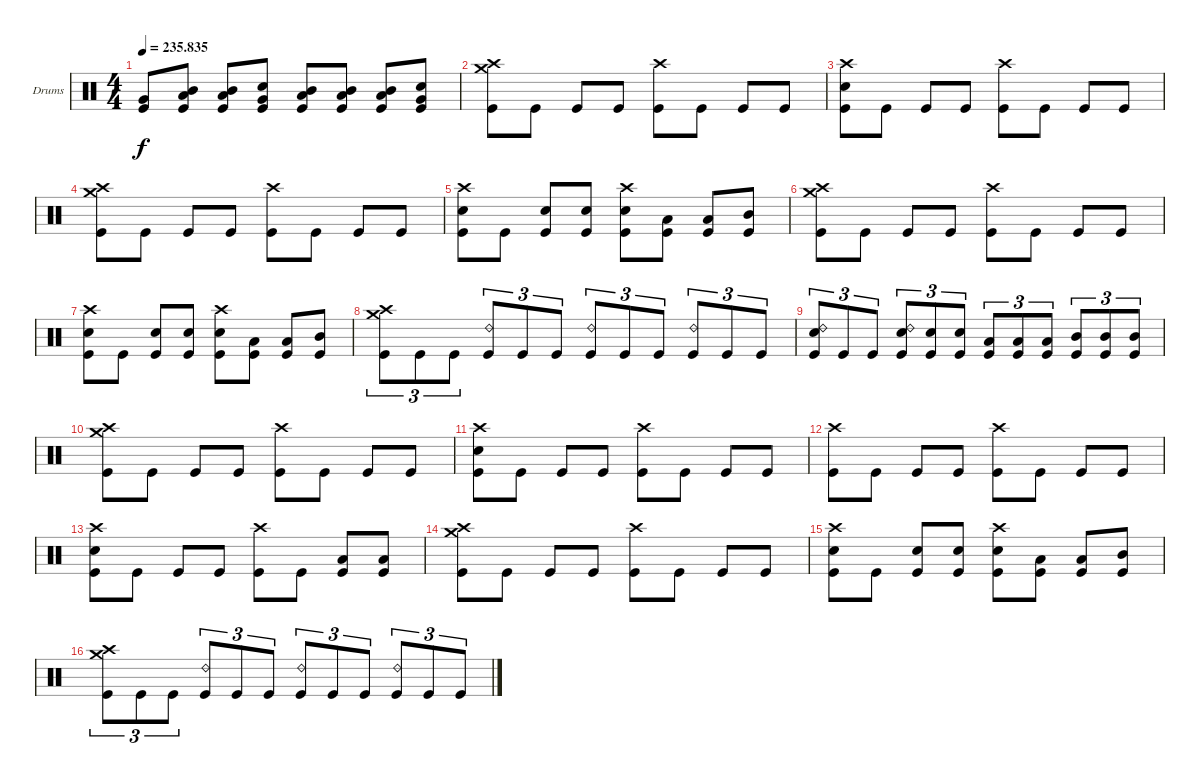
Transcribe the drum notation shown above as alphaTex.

\bracketExtendMode groupsimilarinstruments
\firstSystemTrackNameOrientation horizontal
\otherSystemsTrackNameOrientation horizontal
\track ("Drumkit" "Drums") {instrument percussion}
\staff {score}
\articulation defaults
\ts (4 4)
\tempo
235.835
\accidentals auto
\clef neutral
\ottava regular
\simile none
\ks c
("Very Low Tom (hit)" "Kick (hit)").8{dy f} ("Mid Tom (hit)" "Low Tom (hit)" "Kick (hit)").8 ("Mid Tom (hit)" "Low Tom (hit)" "Kick (hit)").8 ("Very Low Tom (hit)" "Snare (hit) 2" "Kick (hit)").8 ("Mid Tom (hit)" "Low Tom (hit)" "Kick (hit)").8 ("Mid Tom (hit)" "Low Tom (hit)" "Kick (hit)").8 ("Mid Tom (hit)" "Low Tom (hit)" "Kick (hit)").8 ("Very Low Tom (hit)" "Snare (hit) 2" "Kick (hit)").8 |
("Crash high (hit)" "Crash medium (hit)" "Kick (hit)").8 "Kick (hit)".8 "Kick (hit)".8 "Kick (hit)".8 ("Crash high (hit)" "Kick (hit)").8 "Kick (hit)".8 "Kick (hit)".8 "Kick (hit)".8 |
("Crash high (hit)" "Snare (hit) 2" "Kick (hit)").8 "Kick (hit)".8 "Kick (hit)".8 "Kick (hit)".8 ("Crash high (hit)" "Kick (hit)").8 "Kick (hit)".8 "Kick (hit)".8 "Kick (hit)".8 |
("Crash high (hit)" "Crash medium (hit)" "Kick (hit)").8 "Kick (hit)".8 "Kick (hit)".8 "Kick (hit)".8 ("Crash high (hit)" "Kick (hit)").8 "Kick (hit)".8 "Kick (hit)".8 "Kick (hit)".8 |
("Crash high (hit)" "Snare (hit) 2" "Kick (hit)").8 "Kick (hit)".8 ("Snare (hit) 2" "Kick (hit)").8 ("Snare (hit) 2" "Kick (hit)").8 ("Crash high (hit)" "Snare (hit) 2" "Kick (hit)").8 ("Low Tom (hit)" "Kick (hit)").8 ("Low Tom (hit)" "Kick (hit)").8 ("Mid Tom (hit)" "Kick (hit)").8 |
("Crash high (hit)" "Crash medium (hit)" "Kick (hit)").8 "Kick (hit)".8 "Kick (hit)".8 "Kick (hit)".8 ("Crash high (hit)" "Kick (hit)").8 "Kick (hit)".8 "Kick (hit)".8 "Kick (hit)".8 |
("Crash high (hit)" "Snare (hit) 2" "Kick (hit)").8 "Kick (hit)".8 ("Snare (hit) 2" "Kick (hit)").8 ("Snare (hit) 2" "Kick (hit)").8 ("Crash high (hit)" "Snare (hit) 2" "Kick (hit)").8 ("Low Tom (hit)" "Kick (hit)").8 ("Low Tom (hit)" "Kick (hit)").8 ("Mid Tom (hit)" "Kick (hit)").8 |
("Crash high (hit)" "Crash medium (hit)" "Kick (hit)").8{tu (3 2)} "Kick (hit)".8{tu (3 2)} "Kick (hit)".8{tu (3 2)} ("Ride (bell) 2" "Kick (hit)").8{tu (3 2)} "Kick (hit)".8{tu (3 2)} "Kick (hit)".8{tu (3 2)} ("Ride (bell) 2" "Kick (hit)").8{tu (3 2)} "Kick (hit)".8{tu (3 2)} "Kick (hit)".8{tu (3 2)} ("Ride (bell) 2" "Kick (hit)").8{tu (3 2)} "Kick (hit)".8{tu (3 2)} "Kick (hit)".8{tu (3 2)} |
("Ride (bell) 2" "Snare (hit) 2" "Kick (hit)").8{tu (3 2)} "Kick (hit)".8{tu (3 2)} "Kick (hit)".8{tu (3 2)} ("Ride (bell) 2" "Snare (hit) 2" "Kick (hit)").8{tu (3 2)} ("Snare (hit) 2" "Kick (hit)").8{tu (3 2)} ("Snare (hit) 2" "Kick (hit)").8{tu (3 2)} ("Low Tom (hit)" "Kick (hit)").8{tu (3 2)} ("Low Tom (hit)" "Kick (hit)").8{tu (3 2)} ("Low Tom (hit)" "Kick (hit)").8{tu (3 2)} ("Mid Tom (hit)" "Kick (hit)").8{tu (3 2)} ("Mid Tom (hit)" "Kick (hit)").8{tu (3 2)} ("Mid Tom (hit)" "Kick (hit)").8{tu (3 2)} |
("Crash high (hit)" "Crash medium (hit)" "Kick (hit)").8 "Kick (hit)".8 "Kick (hit)".8 "Kick (hit)".8 ("Crash high (hit)" "Kick (hit)").8 "Kick (hit)".8 "Kick (hit)".8 "Kick (hit)".8 |
("Crash high (hit)" "Snare (hit) 2" "Kick (hit)").8 "Kick (hit)".8 "Kick (hit)".8 "Kick (hit)".8 ("Crash high (hit)" "Kick (hit)").8 "Kick (hit)".8 "Kick (hit)".8 "Kick (hit)".8 |
("Crash high (hit)" "Kick (hit)").8 "Kick (hit)".8 "Kick (hit)".8 "Kick (hit)".8 ("Crash high (hit)" "Kick (hit)").8 "Kick (hit)".8 "Kick (hit)".8 "Kick (hit)".8 |
("Crash high (hit)" "Snare (hit) 2" "Kick (hit)").8 "Kick (hit)".8 "Kick (hit)".8 "Kick (hit)".8 ("Crash high (hit)" "Kick (hit)").8 "Kick (hit)".8 ("Low Tom (hit)" "Kick (hit)").8 ("Low Tom (hit)" "Kick (hit)").8 |
("Crash high (hit)" "Crash medium (hit)" "Kick (hit)").8 "Kick (hit)".8 "Kick (hit)".8 "Kick (hit)".8 ("Crash high (hit)" "Kick (hit)").8 "Kick (hit)".8 "Kick (hit)".8 "Kick (hit)".8 |
("Crash high (hit)" "Snare (hit) 2" "Kick (hit)").8 "Kick (hit)".8 ("Snare (hit) 2" "Kick (hit)").8 ("Snare (hit) 2" "Kick (hit)").8 ("Crash high (hit)" "Snare (hit) 2" "Kick (hit)").8 ("Low Tom (hit)" "Kick (hit)").8 ("Low Tom (hit)" "Kick (hit)").8 ("Mid Tom (hit)" "Kick (hit)").8 |
("Crash high (hit)" "Crash medium (hit)" "Kick (hit)").8{tu (3 2)} "Kick (hit)".8{tu (3 2)} "Kick (hit)".8{tu (3 2)} ("Ride (bell) 2" "Kick (hit)").8{tu (3 2)} "Kick (hit)".8{tu (3 2)} "Kick (hit)".8{tu (3 2)} ("Ride (bell) 2" "Kick (hit)").8{tu (3 2)} "Kick (hit)".8{tu (3 2)} "Kick (hit)".8{tu (3 2)} ("Ride (bell) 2" "Kick (hit)").8{tu (3 2)} "Kick (hit)".8{tu (3 2)} "Kick (hit)".8{tu (3 2)}
